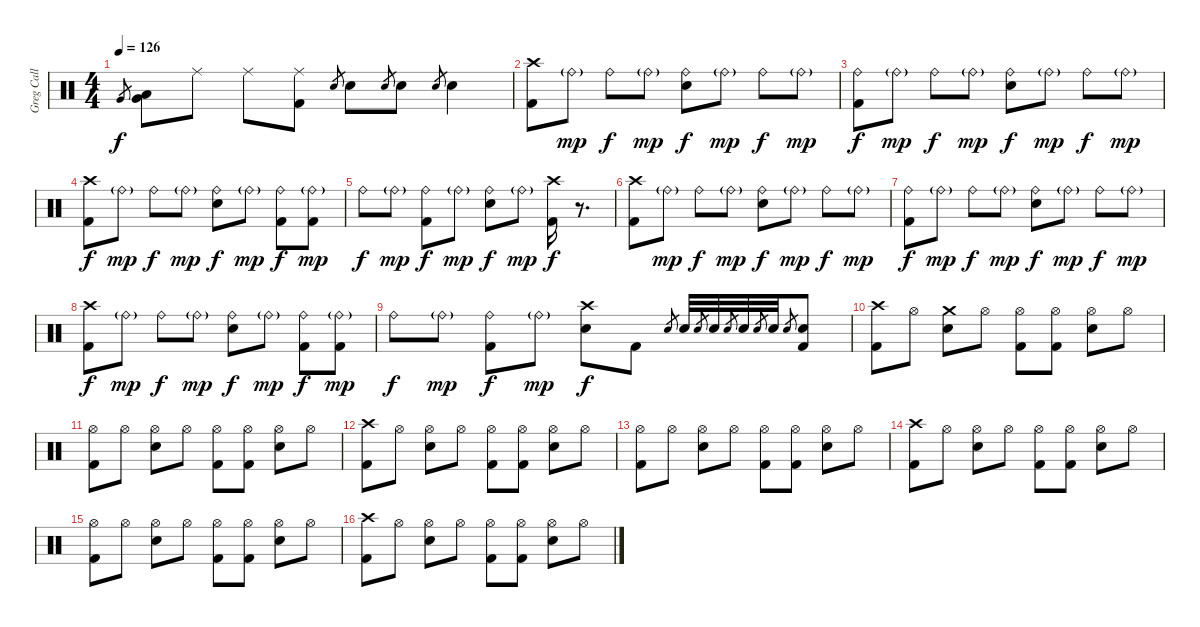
\track ("Greg Call (Drums)" "Greg Call ") {instrument percussion}
\staff {score}
\articulation defaults
\ts (4 4)
\tempo 126
\clef neutral
\ks c "Very Low Tom (hit)".8{gr dy f}
("Very Low Tom (hit)" "Low Floor Tom (hit)").8 "Ride (middle)".8 "Ride (middle)".8 ("Ride (middle)" "Kick (hit) 2").8 "Snare (hit) 2".8{gr} "Snare (hit) 2".8 "Snare (hit) 2".8{gr} "Snare (hit) 2".8 "Snare (hit) 2".8{gr} "Snare (hit) 2".4 |
("Crash high (hit)" "Kick (hit) 2").8 "Ride (bell)"{g}.8{dy mp} "Ride (bell)".8{dy f} "Ride (bell)"{g}.8{dy mp} ("Ride (bell)" "Snare (hit) 2").8{dy f} "Ride (bell)"{g}.8{dy mp} "Ride (bell)".8{dy f} "Ride (bell)"{g}.8{dy mp} |
("Ride (bell)" "Kick (hit) 2").8{dy f} "Ride (bell)"{g}.8{dy mp} "Ride (bell)".8{dy f} "Ride (bell)"{g}.8{dy mp} ("Ride (bell)" "Snare (hit) 2").8{dy f} "Ride (bell)"{g}.8{dy mp} "Ride (bell)".8{dy f} "Ride (bell)"{g}.8{dy mp} |
("Crash high (hit)" "Kick (hit) 2").8{dy f} "Ride (bell)"{g}.8{dy mp} "Ride (bell)".8{dy f} "Ride (bell)"{g}.8{dy mp} ("Ride (bell)" "Snare (hit) 2").8{dy f} "Ride (bell)"{g}.8{dy mp} ("Ride (bell)" "Kick (hit) 2").8{dy f} ("Ride (bell)"{g} "Kick (hit) 2").8{dy mp} |
"Ride (bell)".8{dy f} "Ride (bell)"{g}.8{dy mp} ("Ride (bell)" "Kick (hit) 2").8{dy f} "Ride (bell)"{g}.8{dy mp} ("Ride (bell)" "Snare (hit) 2").8{dy f} "Ride (bell)"{g}.8{dy mp} ("Crash high (hit)" "Kick (hit) 2").16{dy f} r.8{d volume 0} |
("Crash high (hit)" "Kick (hit) 2").8{volume 13} "Ride (bell)"{g}.8{dy mp} "Ride (bell)".8{dy f} "Ride (bell)"{g}.8{dy mp} ("Ride (bell)" "Snare (hit) 2").8{dy f} "Ride (bell)"{g}.8{dy mp} "Ride (bell)".8{dy f} "Ride (bell)"{g}.8{dy mp} |
("Ride (bell)" "Kick (hit) 2").8{dy f} "Ride (bell)"{g}.8{dy mp} "Ride (bell)".8{dy f} "Ride (bell)"{g}.8{dy mp} ("Ride (bell)" "Snare (hit) 2").8{dy f} "Ride (bell)"{g}.8{dy mp} "Ride (bell)".8{dy f} "Ride (bell)"{g}.8{dy mp} |
("Crash high (hit)" "Kick (hit) 2").8{dy f} "Ride (bell)"{g}.8{dy mp} "Ride (bell)".8{dy f} "Ride (bell)"{g}.8{dy mp} ("Ride (bell)" "Snare (hit) 2").8{dy f} "Ride (bell)"{g}.8{dy mp} ("Ride (bell)" "Kick (hit) 2").8{dy f} ("Ride (bell)"{g} "Kick (hit) 2").8{dy mp} |
"Ride (bell)".8{dy f} "Ride (bell)"{g}.8{dy mp} ("Ride (bell)" "Kick (hit) 2").8{dy f} "Ride (bell)"{g}.8{dy mp} ("Crash high (hit)" "Snare (hit) 2").8{dy f} "Kick (hit) 2".8 "Snare (hit) 2".8{gr} "Snare (hit) 2".32 "Snare (hit) 2".8{gr} "Snare (hit) 2".32 "Snare (hit) 2".8{gr} "Snare (hit) 2".32 "Snare (hit) 2".8{gr} "Snare (hit) 2".32 "Snare (hit) 2".8{gr} ("Snare (hit) 2" "Kick (hit) 2").8 |
("Crash high (hit)" "Kick (hit) 2").8 "Hi-Hat (open)".8 ("Crash medium (hit)" "Snare (hit) 2").8 "Hi-Hat (open)".8 ("Hi-Hat (open)" "Kick (hit) 2").8 ("Hi-Hat (open)" "Kick (hit) 2").8 ("Hi-Hat (open)" "Snare (hit) 2").8 "Hi-Hat (open)".8 |
("Hi-Hat (open)" "Kick (hit) 2").8 "Hi-Hat (open)".8 ("Hi-Hat (open)" "Snare (hit) 2").8 "Hi-Hat (open)".8 ("Hi-Hat (open)" "Kick (hit) 2").8 ("Hi-Hat (open)" "Kick (hit) 2").8 ("Hi-Hat (open)" "Snare (hit) 2").8 "Hi-Hat (open)".8 |
("Crash high (hit)" "Kick (hit) 2").8 "Hi-Hat (open)".8 ("Hi-Hat (open)" "Snare (hit) 2").8 "Hi-Hat (open)".8 ("Hi-Hat (open)" "Kick (hit) 2").8 ("Hi-Hat (open)" "Kick (hit) 2").8 ("Hi-Hat (open)" "Snare (hit) 2").8 "Hi-Hat (open)".8 |
("Hi-Hat (open)" "Kick (hit) 2").8 "Hi-Hat (open)".8 ("Hi-Hat (open)" "Snare (hit) 2").8 "Hi-Hat (open)".8 ("Hi-Hat (open)" "Kick (hit) 2").8 ("Hi-Hat (open)" "Kick (hit) 2").8 ("Hi-Hat (open)" "Snare (hit) 2").8 "Hi-Hat (open)".8 |
("Crash high (hit)" "Kick (hit) 2").8 "Hi-Hat (open)".8 ("Hi-Hat (open)" "Snare (hit) 2").8 "Hi-Hat (open)".8 ("Hi-Hat (open)" "Kick (hit) 2").8 ("Hi-Hat (open)" "Kick (hit) 2").8 ("Hi-Hat (open)" "Snare (hit) 2").8 "Hi-Hat (open)".8 |
("Hi-Hat (open)" "Kick (hit) 2").8 "Hi-Hat (open)".8 ("Hi-Hat (open)" "Snare (hit) 2").8 "Hi-Hat (open)".8 ("Hi-Hat (open)" "Kick (hit) 2").8 ("Hi-Hat (open)" "Kick (hit) 2").8 ("Hi-Hat (open)" "Snare (hit) 2").8 "Hi-Hat (open)".8 |
("Crash high (hit)" "Kick (hit) 2").8 "Hi-Hat (open)".8 ("Hi-Hat (open)" "Snare (hit) 2").8 "Hi-Hat (open)".8 ("Hi-Hat (open)" "Kick (hit) 2").8 ("Hi-Hat (open)" "Kick (hit) 2").8 ("Hi-Hat (open)" "Snare (hit) 2").8 "Hi-Hat (open)".8
